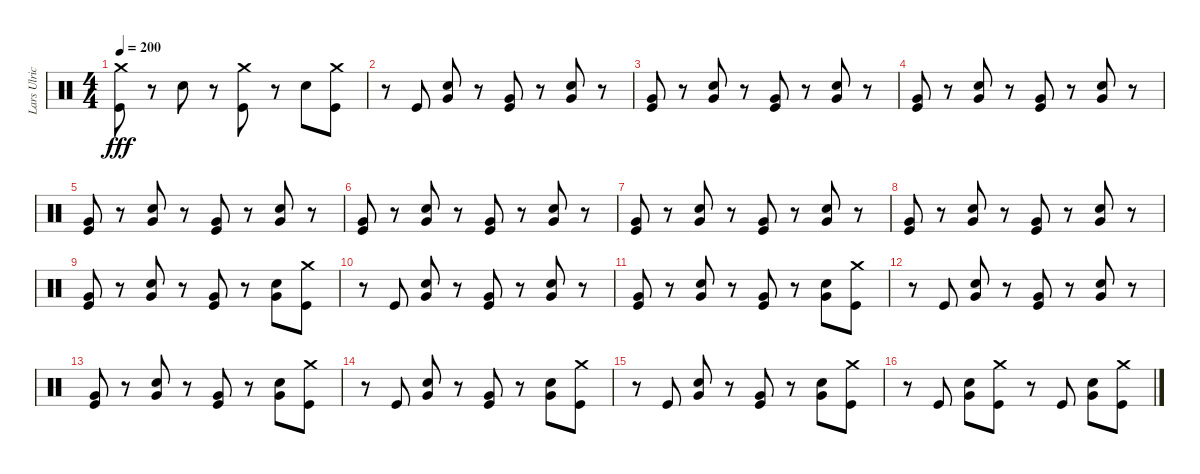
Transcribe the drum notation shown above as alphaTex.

\track ("Lars Ulrich" "Lars Ulric") {instrument percussion}
\staff {score}
\articulation defaults
\ts (4 4)
\tempo 200
\clef neutral
\ks c
("Crash medium (hit)" "Kick (hit)").8{dy fff} r.8 "Snare (hit) 2".8 r.8 ("Crash medium (hit)" "Kick (hit)").8 r.8 "Snare (hit) 2".8 ("Crash medium (hit)" "Kick (hit)").8 |
r.8 "Kick (hit)".8 ("Very Low Tom (hit)" "Snare (hit) 2").8 r.8 ("Very Low Tom (hit)" "Kick (hit)").8 r.8 ("Very Low Tom (hit)" "Snare (hit) 2").8 r.8 |
("Very Low Tom (hit)" "Kick (hit)").8 r.8 ("Snare (hit) 2" "Very Low Tom (hit)").8 r.8 ("Very Low Tom (hit)" "Kick (hit)").8 r.8 ("Very Low Tom (hit)" "Snare (hit) 2").8 r.8 |
("Very Low Tom (hit)" "Kick (hit)").8 r.8 ("Snare (hit) 2" "Very Low Tom (hit)").8 r.8 ("Very Low Tom (hit)" "Kick (hit)").8 r.8 ("Very Low Tom (hit)" "Snare (hit) 2").8 r.8 |
("Very Low Tom (hit)" "Kick (hit)").8 r.8 ("Snare (hit) 2" "Very Low Tom (hit)").8 r.8 ("Very Low Tom (hit)" "Kick (hit)").8 r.8 ("Very Low Tom (hit)" "Snare (hit) 2").8 r.8 |
("Very Low Tom (hit)" "Kick (hit)").8 r.8 ("Snare (hit) 2" "Very Low Tom (hit)").8 r.8 ("Very Low Tom (hit)" "Kick (hit)").8 r.8 ("Very Low Tom (hit)" "Snare (hit) 2").8 r.8 |
("Very Low Tom (hit)" "Kick (hit)").8 r.8 ("Snare (hit) 2" "Very Low Tom (hit)").8 r.8 ("Very Low Tom (hit)" "Kick (hit)").8 r.8 ("Very Low Tom (hit)" "Snare (hit) 2").8 r.8 |
("Very Low Tom (hit)" "Kick (hit)").8 r.8 ("Snare (hit) 2" "Very Low Tom (hit)").8 r.8 ("Very Low Tom (hit)" "Kick (hit)").8 r.8 ("Very Low Tom (hit)" "Snare (hit) 2").8 r.8 |
("Very Low Tom (hit)" "Kick (hit)").8 r.8 ("Snare (hit) 2" "Very Low Tom (hit)").8 r.8 ("Very Low Tom (hit)" "Kick (hit)").8 r.8 ("Very Low Tom (hit)" "Snare (hit) 2").8 ("Crash medium (hit)" "Kick (hit)").8 |
r.8 "Kick (hit)".8 ("Snare (hit) 2" "Very Low Tom (hit)").8 r.8 ("Very Low Tom (hit)" "Kick (hit)").8 r.8 ("Very Low Tom (hit)" "Snare (hit) 2").8 r.8 |
("Very Low Tom (hit)" "Kick (hit)").8 r.8 ("Snare (hit) 2" "Very Low Tom (hit)").8 r.8 ("Very Low Tom (hit)" "Kick (hit)").8 r.8 ("Very Low Tom (hit)" "Snare (hit) 2").8 ("Crash medium (hit)" "Kick (hit)").8 |
r.8 "Kick (hit)".8 ("Snare (hit) 2" "Very Low Tom (hit)").8 r.8 ("Very Low Tom (hit)" "Kick (hit)").8 r.8 ("Very Low Tom (hit)" "Snare (hit) 2").8 r.8 |
("Very Low Tom (hit)" "Kick (hit)").8 r.8 ("Snare (hit) 2" "Very Low Tom (hit)").8 r.8 ("Very Low Tom (hit)" "Kick (hit)").8 r.8 ("Very Low Tom (hit)" "Snare (hit) 2").8 ("Crash medium (hit)" "Kick (hit)").8 |
r.8 "Kick (hit)".8 ("Snare (hit) 2" "Very Low Tom (hit)").8 r.8 ("Very Low Tom (hit)" "Kick (hit)").8 r.8 ("Very Low Tom (hit)" "Snare (hit) 2").8 ("Crash medium (hit)" "Kick (hit)").8 |
r.8 "Kick (hit)".8 ("Snare (hit) 2" "Very Low Tom (hit)").8 r.8 ("Very Low Tom (hit)" "Kick (hit)").8 r.8 ("Very Low Tom (hit)" "Snare (hit) 2").8 ("Crash medium (hit)" "Kick (hit)").8 |
r.8 "Kick (hit)".8 ("Very Low Tom (hit)" "Snare (hit) 2").8 ("Crash medium (hit)" "Kick (hit)").8 r.8 "Kick (hit)".8 ("Very Low Tom (hit)" "Snare (hit) 2").8 ("Crash medium (hit)" "Kick (hit)").8
